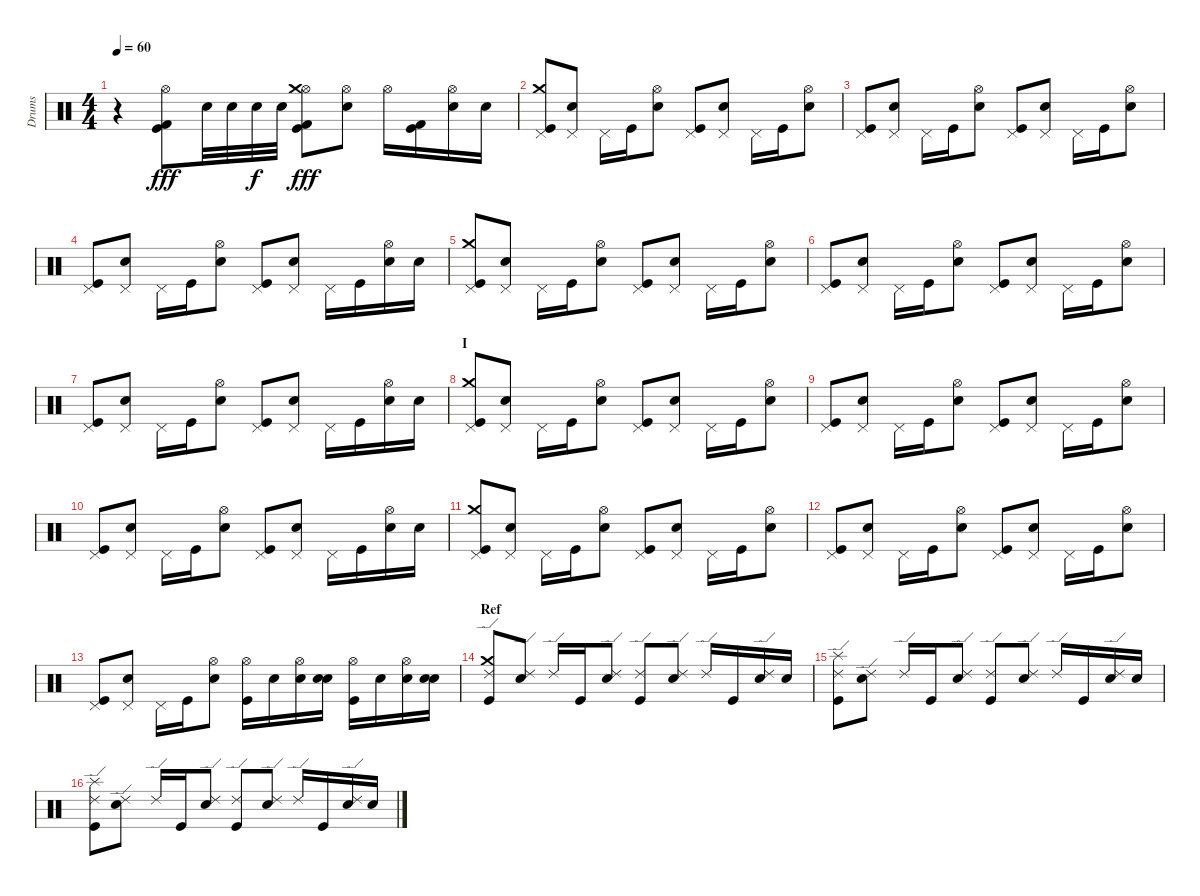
\track ("Drums" "Drums") {instrument percussion}
\staff {score}
\articulation defaults
\ts (4 4)
\tempo 60
\clef neutral
\ks c
r.4{dy fff} ("Hi-Hat (open)" "Kick (hit) 2" "Kick (hit)").8 "Snare (hit) 2".32 "Snare (hit) 2".32 "Snare (hit) 2".32{dy f} "Snare (hit) 2".32 ("Hi-Hat (open)" "Kick (hit)" "Kick (hit) 2" "Crash medium (hit)").8{dy fff} ("Hi-Hat (open)" "Snare (hit) 2").8 "Hi-Hat (open)".16 ("Kick (hit)" "Kick (hit) 2").16 ("Hi-Hat (open)" "Snare (hit) 2").16 "Snare (hit) 2".16 |
("Pedal Hi-Hat (hit)" "Kick (hit)" "Crash medium (hit)").8 ("Pedal Hi-Hat (hit)" "Snare (hit) 2").8 "Pedal Hi-Hat (hit)".16 "Kick (hit)".16 ("Hi-Hat (open)" "Snare (hit) 2").8 ("Pedal Hi-Hat (hit)" "Kick (hit)").8 ("Pedal Hi-Hat (hit)" "Snare (hit) 2").8 "Pedal Hi-Hat (hit)".16 "Kick (hit)".16 ("Hi-Hat (open)" "Snare (hit) 2").8 |
("Pedal Hi-Hat (hit)" "Kick (hit)").8 ("Pedal Hi-Hat (hit)" "Snare (hit) 2").8 "Pedal Hi-Hat (hit)".16 "Kick (hit)".16 ("Hi-Hat (open)" "Snare (hit) 2").8 ("Pedal Hi-Hat (hit)" "Kick (hit)").8 ("Pedal Hi-Hat (hit)" "Snare (hit) 2").8 "Pedal Hi-Hat (hit)".16 "Kick (hit)".16 ("Hi-Hat (open)" "Snare (hit) 2").8 |
("Pedal Hi-Hat (hit)" "Kick (hit)").8 ("Pedal Hi-Hat (hit)" "Snare (hit) 2").8 "Pedal Hi-Hat (hit)".16 "Kick (hit)".16 ("Hi-Hat (open)" "Snare (hit) 2").8 ("Pedal Hi-Hat (hit)" "Kick (hit)").8 ("Pedal Hi-Hat (hit)" "Snare (hit) 2").8 "Pedal Hi-Hat (hit)".16 "Kick (hit)".16 ("Hi-Hat (open)" "Snare (hit) 2").16 "Snare (hit) 2".16 |
("Pedal Hi-Hat (hit)" "Kick (hit)" "Crash medium (hit)").8 ("Pedal Hi-Hat (hit)" "Snare (hit) 2").8 "Pedal Hi-Hat (hit)".16 "Kick (hit)".16 ("Hi-Hat (open)" "Snare (hit) 2").8 ("Pedal Hi-Hat (hit)" "Kick (hit)").8 ("Pedal Hi-Hat (hit)" "Snare (hit) 2").8 "Pedal Hi-Hat (hit)".16 "Kick (hit)".16 ("Hi-Hat (open)" "Snare (hit) 2").8 |
("Pedal Hi-Hat (hit)" "Kick (hit)").8 ("Pedal Hi-Hat (hit)" "Snare (hit) 2").8 "Pedal Hi-Hat (hit)".16 "Kick (hit)".16 ("Hi-Hat (open)" "Snare (hit) 2").8 ("Pedal Hi-Hat (hit)" "Kick (hit)").8 ("Pedal Hi-Hat (hit)" "Snare (hit) 2").8 "Pedal Hi-Hat (hit)".16 "Kick (hit)".16 ("Hi-Hat (open)" "Snare (hit) 2").8 |
("Pedal Hi-Hat (hit)" "Kick (hit)").8 ("Pedal Hi-Hat (hit)" "Snare (hit) 2").8 "Pedal Hi-Hat (hit)".16 "Kick (hit)".16 ("Hi-Hat (open)" "Snare (hit) 2").8 ("Pedal Hi-Hat (hit)" "Kick (hit)").8 ("Pedal Hi-Hat (hit)" "Snare (hit) 2").8 "Pedal Hi-Hat (hit)".16 "Kick (hit)".16 ("Hi-Hat (open)" "Snare (hit) 2").16 "Snare (hit) 2".16 |
\section ("" "I")
("Pedal Hi-Hat (hit)" "Kick (hit)" "Crash medium (hit)").8 ("Pedal Hi-Hat (hit)" "Snare (hit) 2").8 "Pedal Hi-Hat (hit)".16 "Kick (hit)".16 ("Hi-Hat (open)" "Snare (hit) 2").8 ("Pedal Hi-Hat (hit)" "Kick (hit)").8 ("Pedal Hi-Hat (hit)" "Snare (hit) 2").8 "Pedal Hi-Hat (hit)".16 "Kick (hit)".16 ("Hi-Hat (open)" "Snare (hit) 2").8 |
("Pedal Hi-Hat (hit)" "Kick (hit)").8 ("Pedal Hi-Hat (hit)" "Snare (hit) 2").8 "Pedal Hi-Hat (hit)".16 "Kick (hit)".16 ("Hi-Hat (open)" "Snare (hit) 2").8 ("Pedal Hi-Hat (hit)" "Kick (hit)").8 ("Pedal Hi-Hat (hit)" "Snare (hit) 2").8 "Pedal Hi-Hat (hit)".16 "Kick (hit)".16 ("Hi-Hat (open)" "Snare (hit) 2").8 |
("Pedal Hi-Hat (hit)" "Kick (hit)").8 ("Pedal Hi-Hat (hit)" "Snare (hit) 2").8 "Pedal Hi-Hat (hit)".16 "Kick (hit)".16 ("Hi-Hat (open)" "Snare (hit) 2").8 ("Pedal Hi-Hat (hit)" "Kick (hit)").8 ("Pedal Hi-Hat (hit)" "Snare (hit) 2").8 "Pedal Hi-Hat (hit)".16 "Kick (hit)".16 ("Hi-Hat (open)" "Snare (hit) 2").16 "Snare (hit) 2".16 |
("Pedal Hi-Hat (hit)" "Kick (hit)" "Crash medium (hit)").8 ("Pedal Hi-Hat (hit)" "Snare (hit) 2").8 "Pedal Hi-Hat (hit)".16 "Kick (hit)".16 ("Hi-Hat (open)" "Snare (hit) 2").8 ("Pedal Hi-Hat (hit)" "Kick (hit)").8 ("Pedal Hi-Hat (hit)" "Snare (hit) 2").8 "Pedal Hi-Hat (hit)".16 "Kick (hit)".16 ("Hi-Hat (open)" "Snare (hit) 2").8 |
("Pedal Hi-Hat (hit)" "Kick (hit)").8 ("Pedal Hi-Hat (hit)" "Snare (hit) 2").8 "Pedal Hi-Hat (hit)".16 "Kick (hit)".16 ("Hi-Hat (open)" "Snare (hit) 2").8 ("Pedal Hi-Hat (hit)" "Kick (hit)").8 ("Pedal Hi-Hat (hit)" "Snare (hit) 2").8 "Pedal Hi-Hat (hit)".16 "Kick (hit)".16 ("Hi-Hat (open)" "Snare (hit) 2").8 |
("Pedal Hi-Hat (hit)" "Kick (hit)").8 ("Pedal Hi-Hat (hit)" "Snare (hit) 2").8 "Pedal Hi-Hat (hit)".16 "Kick (hit)".16 ("Hi-Hat (open)" "Snare (hit) 2").8 ("Hi-Hat (open)" "Kick (hit)").16 "Snare (hit) 2".16 ("Hi-Hat (open)" "Snare (hit) 2").16 ("Snare (hit) 2" "Snare (hit) 2").16 ("Hi-Hat (open)" "Kick (hit)").16 "Snare (hit) 2".16 ("Hi-Hat (open)" "Snare (hit) 2").16 ("Snare (hit) 2" "Snare (hit) 2").16 |
\section ("" "Ref")
("Ride (edge) 2" "Kick (hit)" "Crash medium (hit)").8 ("Ride (edge) 2" "Snare (hit) 2").8 "Ride (edge) 2".16 "Kick (hit)".16 ("Ride (edge) 2" "Snare (hit) 2").8 ("Ride (edge) 2" "Kick (hit)").8 ("Ride (edge) 2" "Snare (hit) 2").8 "Ride (edge) 2".16 "Kick (hit)".16 ("Ride (edge) 2" "Snare (hit) 2").16 "Snare (hit) 2".16 |
("Ride (edge) 2" "Kick (hit)" "Splash (hit)").8 ("Ride (edge) 2" "Snare (hit) 2").8 "Ride (edge) 2".16 "Kick (hit)".16 ("Ride (edge) 2" "Snare (hit) 2").8 ("Ride (edge) 2" "Kick (hit)").8 ("Ride (edge) 2" "Snare (hit) 2").8 "Ride (edge) 2".16 "Kick (hit)".16 ("Ride (edge) 2" "Snare (hit) 2").16 "Snare (hit) 2".16 |
("Ride (edge) 2" "Kick (hit)" "Splash (hit)").8 ("Ride (edge) 2" "Snare (hit) 2").8 "Ride (edge) 2".16 "Kick (hit)".16 ("Ride (edge) 2" "Snare (hit) 2").8 ("Ride (edge) 2" "Kick (hit)").8 ("Ride (edge) 2" "Snare (hit) 2").8 "Ride (edge) 2".16 "Kick (hit)".16 ("Ride (edge) 2" "Snare (hit) 2").16 "Snare (hit) 2".16
